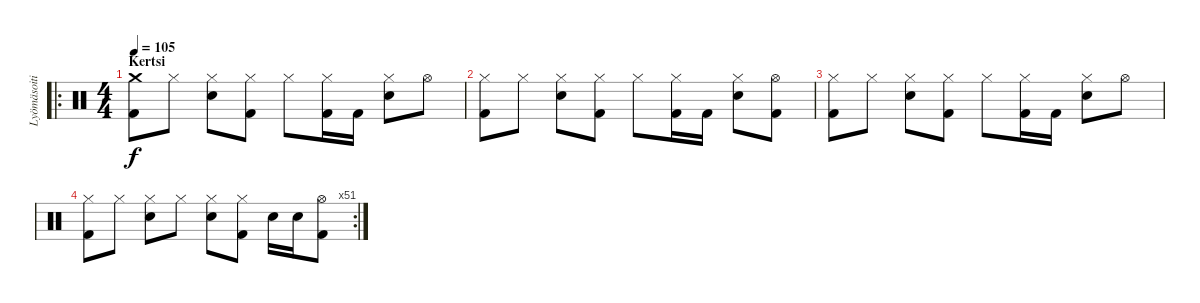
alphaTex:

\track ("Lyömäsoitin" "Lyömäsoiti") {instrument percussion}
\staff {score}
\articulation defaults
\ro
\ts (4 4)
\section ("" "Kertsi")
\tempo 105
\clef neutral
\ks c
("Crash medium (hit)" "Kick (hit) 2").8{dy f} "Hi-Hat (closed)".8 ("Hi-Hat (closed)" "Electric Snare (hit)").8 ("Hi-Hat (closed)" "Kick (hit) 2").8 "Hi-Hat (closed)".8 ("Hi-Hat (closed)" "Kick (hit) 2").16 "Kick (hit) 2".16 ("Hi-Hat (closed)" "Electric Snare (hit)").8 "Hi-Hat (open)".8 |
("Hi-Hat (closed)" "Kick (hit) 2").8 "Hi-Hat (closed)".8 ("Hi-Hat (closed)" "Electric Snare (hit)").8 ("Hi-Hat (closed)" "Kick (hit) 2").8 "Hi-Hat (closed)".8 ("Hi-Hat (closed)" "Kick (hit) 2").16 "Kick (hit) 2".16 ("Hi-Hat (closed)" "Electric Snare (hit)").8 ("Hi-Hat (open)" "Kick (hit) 2").8 |
("Hi-Hat (closed)" "Kick (hit) 2").8 "Hi-Hat (closed)".8 ("Hi-Hat (closed)" "Electric Snare (hit)").8 ("Hi-Hat (closed)" "Kick (hit) 2").8 "Hi-Hat (closed)".8 ("Hi-Hat (closed)" "Kick (hit) 2").16 "Kick (hit) 2".16 ("Hi-Hat (closed)" "Electric Snare (hit)").8 "Hi-Hat (open)".8 |
\rc 51
("Hi-Hat (closed)" "Kick (hit) 2").8 "Hi-Hat (closed)".8 ("Hi-Hat (closed)" "Electric Snare (hit)").8 "Hi-Hat (closed)".8 ("Hi-Hat (closed)" "Snare (hit) 2").8 ("Hi-Hat (closed)" "Kick (hit) 2").8 "Electric Snare (hit)".16 "Snare (hit) 2".16 ("Hi-Hat (open)" "Kick (hit) 2").8
